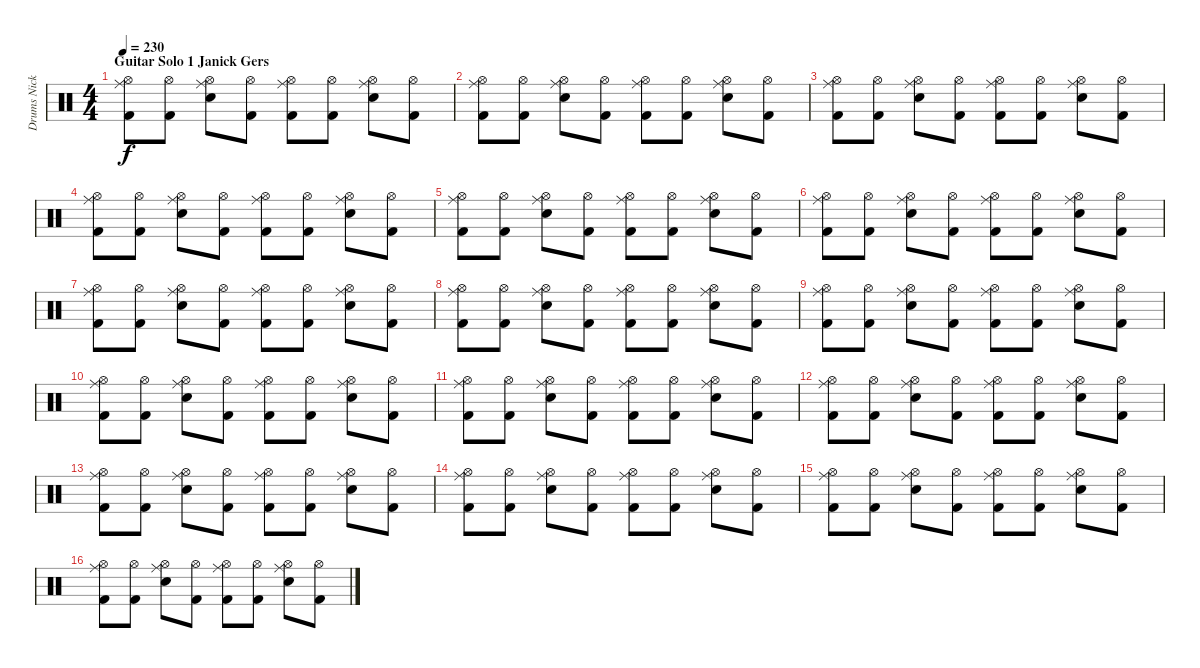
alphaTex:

\track ("Drums Nicko McBrain" "Drums Nick") {instrument percussion}
\staff {score}
\articulation defaults
\ts (4 4)
\section ("" "Guitar Solo 1 Janick Gers")
\tempo 225
\tempo 230
\clef neutral
\ks c
("Hi-Hat (open)" "Ride (middle)" "Kick (hit) 2").8{dy f} ("Hi-Hat (open)" "Kick (hit) 2").8 ("Hi-Hat (open)" "Ride (middle)" "Snare (hit) 2").8 ("Hi-Hat (open)" "Kick (hit) 2").8 ("Hi-Hat (open)" "Ride (middle)" "Kick (hit) 2").8 ("Hi-Hat (open)" "Kick (hit) 2").8 ("Hi-Hat (open)" "Ride (middle)" "Snare (hit) 2").8 ("Hi-Hat (open)" "Kick (hit) 2").8 |
("Hi-Hat (open)" "Ride (middle)" "Kick (hit) 2").8 ("Hi-Hat (open)" "Kick (hit) 2").8 ("Hi-Hat (open)" "Ride (middle)" "Snare (hit) 2").8 ("Hi-Hat (open)" "Kick (hit) 2").8 ("Hi-Hat (open)" "Ride (middle)" "Kick (hit) 2").8 ("Hi-Hat (open)" "Kick (hit) 2").8 ("Hi-Hat (open)" "Ride (middle)" "Snare (hit) 2").8 ("Hi-Hat (open)" "Kick (hit) 2").8 |
("Hi-Hat (open)" "Ride (middle)" "Kick (hit) 2").8 ("Hi-Hat (open)" "Kick (hit) 2").8 ("Hi-Hat (open)" "Ride (middle)" "Snare (hit) 2").8 ("Hi-Hat (open)" "Kick (hit) 2").8 ("Hi-Hat (open)" "Ride (middle)" "Kick (hit) 2").8 ("Hi-Hat (open)" "Kick (hit) 2").8 ("Hi-Hat (open)" "Ride (middle)" "Snare (hit) 2").8 ("Hi-Hat (open)" "Kick (hit) 2").8 |
("Hi-Hat (open)" "Ride (middle)" "Kick (hit) 2").8 ("Hi-Hat (open)" "Kick (hit) 2").8 ("Hi-Hat (open)" "Ride (middle)" "Snare (hit) 2").8 ("Hi-Hat (open)" "Kick (hit) 2").8 ("Hi-Hat (open)" "Ride (middle)" "Kick (hit) 2").8 ("Hi-Hat (open)" "Kick (hit) 2").8 ("Hi-Hat (open)" "Ride (middle)" "Snare (hit) 2").8 ("Hi-Hat (open)" "Kick (hit) 2").8 |
("Hi-Hat (open)" "Ride (middle)" "Kick (hit) 2").8 ("Hi-Hat (open)" "Kick (hit) 2").8 ("Hi-Hat (open)" "Ride (middle)" "Snare (hit) 2").8 ("Hi-Hat (open)" "Kick (hit) 2").8 ("Hi-Hat (open)" "Ride (middle)" "Kick (hit) 2").8 ("Hi-Hat (open)" "Kick (hit) 2").8 ("Hi-Hat (open)" "Ride (middle)" "Snare (hit) 2").8 ("Hi-Hat (open)" "Kick (hit) 2").8 |
("Hi-Hat (open)" "Ride (middle)" "Kick (hit) 2").8 ("Hi-Hat (open)" "Kick (hit) 2").8 ("Hi-Hat (open)" "Ride (middle)" "Snare (hit) 2").8 ("Hi-Hat (open)" "Kick (hit) 2").8 ("Hi-Hat (open)" "Ride (middle)" "Kick (hit) 2").8 ("Hi-Hat (open)" "Kick (hit) 2").8 ("Hi-Hat (open)" "Ride (middle)" "Snare (hit) 2").8 ("Hi-Hat (open)" "Kick (hit) 2").8 |
("Hi-Hat (open)" "Ride (middle)" "Kick (hit) 2").8 ("Hi-Hat (open)" "Kick (hit) 2").8 ("Hi-Hat (open)" "Ride (middle)" "Snare (hit) 2").8 ("Hi-Hat (open)" "Kick (hit) 2").8 ("Hi-Hat (open)" "Ride (middle)" "Kick (hit) 2").8 ("Hi-Hat (open)" "Kick (hit) 2").8 ("Hi-Hat (open)" "Ride (middle)" "Snare (hit) 2").8 ("Hi-Hat (open)" "Kick (hit) 2").8 |
("Hi-Hat (open)" "Ride (middle)" "Kick (hit) 2").8 ("Hi-Hat (open)" "Kick (hit) 2").8 ("Hi-Hat (open)" "Ride (middle)" "Snare (hit) 2").8 ("Hi-Hat (open)" "Kick (hit) 2").8 ("Hi-Hat (open)" "Ride (middle)" "Kick (hit) 2").8 ("Hi-Hat (open)" "Kick (hit) 2").8 ("Hi-Hat (open)" "Ride (middle)" "Snare (hit) 2").8 ("Hi-Hat (open)" "Kick (hit) 2").8 |
("Hi-Hat (open)" "Ride (middle)" "Kick (hit) 2").8 ("Hi-Hat (open)" "Kick (hit) 2").8 ("Hi-Hat (open)" "Ride (middle)" "Snare (hit) 2").8 ("Hi-Hat (open)" "Kick (hit) 2").8 ("Hi-Hat (open)" "Ride (middle)" "Kick (hit) 2").8 ("Hi-Hat (open)" "Kick (hit) 2").8 ("Hi-Hat (open)" "Ride (middle)" "Snare (hit) 2").8 ("Hi-Hat (open)" "Kick (hit) 2").8 |
("Hi-Hat (open)" "Ride (middle)" "Kick (hit) 2").8 ("Hi-Hat (open)" "Kick (hit) 2").8 ("Hi-Hat (open)" "Ride (middle)" "Snare (hit) 2").8 ("Hi-Hat (open)" "Kick (hit) 2").8 ("Hi-Hat (open)" "Ride (middle)" "Kick (hit) 2").8 ("Hi-Hat (open)" "Kick (hit) 2").8 ("Hi-Hat (open)" "Ride (middle)" "Snare (hit) 2").8 ("Hi-Hat (open)" "Kick (hit) 2").8 |
("Hi-Hat (open)" "Ride (middle)" "Kick (hit) 2").8 ("Hi-Hat (open)" "Kick (hit) 2").8 ("Hi-Hat (open)" "Ride (middle)" "Snare (hit) 2").8 ("Hi-Hat (open)" "Kick (hit) 2").8 ("Hi-Hat (open)" "Ride (middle)" "Kick (hit) 2").8 ("Hi-Hat (open)" "Kick (hit) 2").8 ("Hi-Hat (open)" "Ride (middle)" "Snare (hit) 2").8 ("Hi-Hat (open)" "Kick (hit) 2").8 |
("Hi-Hat (open)" "Ride (middle)" "Kick (hit) 2").8 ("Hi-Hat (open)" "Kick (hit) 2").8 ("Hi-Hat (open)" "Ride (middle)" "Snare (hit) 2").8 ("Hi-Hat (open)" "Kick (hit) 2").8 ("Hi-Hat (open)" "Ride (middle)" "Kick (hit) 2").8 ("Hi-Hat (open)" "Kick (hit) 2").8 ("Hi-Hat (open)" "Ride (middle)" "Snare (hit) 2").8 ("Hi-Hat (open)" "Kick (hit) 2").8 |
("Hi-Hat (open)" "Ride (middle)" "Kick (hit) 2").8 ("Hi-Hat (open)" "Kick (hit) 2").8 ("Hi-Hat (open)" "Ride (middle)" "Snare (hit) 2").8 ("Hi-Hat (open)" "Kick (hit) 2").8 ("Hi-Hat (open)" "Ride (middle)" "Kick (hit) 2").8 ("Hi-Hat (open)" "Kick (hit) 2").8 ("Hi-Hat (open)" "Ride (middle)" "Snare (hit) 2").8 ("Hi-Hat (open)" "Kick (hit) 2").8 |
("Hi-Hat (open)" "Ride (middle)" "Kick (hit) 2").8 ("Hi-Hat (open)" "Kick (hit) 2").8 ("Hi-Hat (open)" "Ride (middle)" "Snare (hit) 2").8 ("Hi-Hat (open)" "Kick (hit) 2").8 ("Hi-Hat (open)" "Ride (middle)" "Kick (hit) 2").8 ("Hi-Hat (open)" "Kick (hit) 2").8 ("Hi-Hat (open)" "Ride (middle)" "Snare (hit) 2").8 ("Hi-Hat (open)" "Kick (hit) 2").8 |
("Hi-Hat (open)" "Ride (middle)" "Kick (hit) 2").8 ("Hi-Hat (open)" "Kick (hit) 2").8 ("Hi-Hat (open)" "Ride (middle)" "Snare (hit) 2").8 ("Hi-Hat (open)" "Kick (hit) 2").8 ("Hi-Hat (open)" "Ride (middle)" "Kick (hit) 2").8 ("Hi-Hat (open)" "Kick (hit) 2").8 ("Hi-Hat (open)" "Ride (middle)" "Snare (hit) 2").8 ("Hi-Hat (open)" "Kick (hit) 2").8 |
("Hi-Hat (open)" "Ride (middle)" "Kick (hit) 2").8 ("Hi-Hat (open)" "Kick (hit) 2").8 ("Hi-Hat (open)" "Ride (middle)" "Snare (hit) 2").8 ("Hi-Hat (open)" "Kick (hit) 2").8 ("Hi-Hat (open)" "Ride (middle)" "Kick (hit) 2").8 ("Hi-Hat (open)" "Kick (hit) 2").8 ("Hi-Hat (open)" "Ride (middle)" "Snare (hit) 2").8 ("Hi-Hat (open)" "Kick (hit) 2").8
